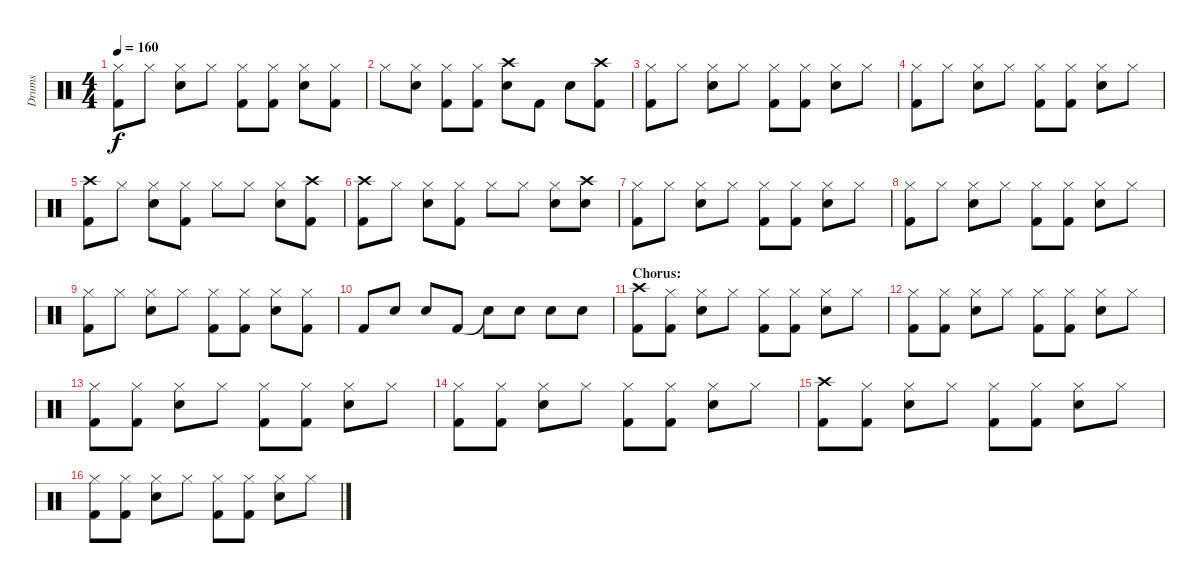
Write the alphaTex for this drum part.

\track ("Drums" "Drums") {instrument percussion}
\staff {score}
\articulation defaults
\ts (4 4)
\tempo 160
\clef neutral
\ks c
("Hi-Hat (closed)" "Kick (hit) 2").8{dy f} "Hi-Hat (closed)".8 ("Hi-Hat (closed)" "Electric Snare (hit)").8 "Hi-Hat (closed)".8 ("Hi-Hat (closed)" "Kick (hit) 2").8 ("Hi-Hat (closed)" "Kick (hit) 2").8 ("Hi-Hat (closed)" "Electric Snare (hit)").8 ("Hi-Hat (closed)" "Kick (hit) 2").8 |
"Hi-Hat (closed)".8 ("Hi-Hat (closed)" "Electric Snare (hit)").8 ("Hi-Hat (closed)" "Kick (hit) 2").8 ("Hi-Hat (closed)" "Kick (hit) 2").8 ("Crash high (hit)" "Electric Snare (hit)").8 "Kick (hit) 2".8 "Electric Snare (hit)".8 ("Crash high (hit)" "Kick (hit) 2").8 |
("Hi-Hat (closed)" "Kick (hit) 2").8 "Hi-Hat (closed)".8 ("Hi-Hat (closed)" "Electric Snare (hit)").8 "Hi-Hat (closed)".8 ("Hi-Hat (closed)" "Kick (hit) 2").8 ("Hi-Hat (closed)" "Kick (hit) 2").8 ("Hi-Hat (closed)" "Electric Snare (hit)").8 "Hi-Hat (closed)".8 |
("Hi-Hat (closed)" "Kick (hit) 2").8 "Hi-Hat (closed)".8 ("Hi-Hat (closed)" "Electric Snare (hit)").8 "Hi-Hat (closed)".8 ("Hi-Hat (closed)" "Kick (hit) 2").8 ("Hi-Hat (closed)" "Kick (hit) 2").8 ("Hi-Hat (closed)" "Electric Snare (hit)").8 "Hi-Hat (closed)".8 |
("Crash high (hit)" "Kick (hit) 2").8 "Hi-Hat (closed)".8 ("Hi-Hat (closed)" "Electric Snare (hit)").8 ("Hi-Hat (closed)" "Kick (hit) 2").8 "Hi-Hat (closed)".8 "Hi-Hat (closed)".8 ("Hi-Hat (closed)" "Electric Snare (hit)").8 ("Crash high (hit)" "Kick (hit) 2").8 |
("Crash high (hit)" "Kick (hit) 2").8 "Hi-Hat (closed)".8 ("Hi-Hat (closed)" "Electric Snare (hit)").8 ("Hi-Hat (closed)" "Kick (hit) 2").8 "Hi-Hat (closed)".8 "Hi-Hat (closed)".8 ("Hi-Hat (closed)" "Electric Snare (hit)").8 ("Crash high (hit)" "Electric Snare (hit)").8 |
("Hi-Hat (closed)" "Kick (hit) 2").8 "Hi-Hat (closed)".8 ("Hi-Hat (closed)" "Electric Snare (hit)").8 "Hi-Hat (closed)".8 ("Hi-Hat (closed)" "Kick (hit) 2").8 ("Hi-Hat (closed)" "Kick (hit) 2").8 ("Hi-Hat (closed)" "Electric Snare (hit)").8 "Hi-Hat (closed)".8 |
("Hi-Hat (closed)" "Kick (hit) 2").8 "Hi-Hat (closed)".8 ("Hi-Hat (closed)" "Electric Snare (hit)").8 "Hi-Hat (closed)".8 ("Hi-Hat (closed)" "Kick (hit) 2").8 ("Hi-Hat (closed)" "Kick (hit) 2").8 ("Hi-Hat (closed)" "Electric Snare (hit)").8 "Hi-Hat (closed)".8 |
("Hi-Hat (closed)" "Kick (hit) 2").8 "Hi-Hat (closed)".8 ("Hi-Hat (closed)" "Electric Snare (hit)").8 "Hi-Hat (closed)".8 ("Hi-Hat (closed)" "Kick (hit) 2").8 ("Hi-Hat (closed)" "Kick (hit) 2").8 ("Hi-Hat (closed)" "Electric Snare (hit)").8 ("Hi-Hat (closed)" "Kick (hit) 2").8 |
"Kick (hit) 2".8 "Electric Snare (hit)".8 "Electric Snare (hit)".8 "Kick (hit) 2".8 "Snare (hit)"{t}.8 "Electric Snare (hit)".8 "Electric Snare (hit)".8 "Electric Snare (hit)".8 |
\section ("" "Chorus:")
("Crash high (hit)" "Kick (hit) 2").8 ("Hi-Hat (closed)" "Kick (hit) 2").8 ("Hi-Hat (closed)" "Electric Snare (hit)").8 "Hi-Hat (closed)".8 ("Hi-Hat (closed)" "Kick (hit) 2").8 ("Hi-Hat (closed)" "Kick (hit) 2").8 ("Hi-Hat (closed)" "Electric Snare (hit)").8 "Hi-Hat (closed)".8 |
("Hi-Hat (closed)" "Kick (hit) 2").8 ("Hi-Hat (closed)" "Kick (hit) 2").8 ("Hi-Hat (closed)" "Electric Snare (hit)").8 "Hi-Hat (closed)".8 ("Hi-Hat (closed)" "Kick (hit) 2").8 ("Hi-Hat (closed)" "Kick (hit) 2").8 ("Hi-Hat (closed)" "Electric Snare (hit)").8 "Hi-Hat (closed)".8 |
("Hi-Hat (closed)" "Kick (hit) 2").8 ("Hi-Hat (closed)" "Kick (hit) 2").8 ("Hi-Hat (closed)" "Electric Snare (hit)").8 "Hi-Hat (closed)".8 ("Hi-Hat (closed)" "Kick (hit) 2").8 ("Hi-Hat (closed)" "Kick (hit) 2").8 ("Hi-Hat (closed)" "Electric Snare (hit)").8 "Hi-Hat (closed)".8 |
("Hi-Hat (closed)" "Kick (hit) 2").8 ("Hi-Hat (closed)" "Kick (hit) 2").8 ("Hi-Hat (closed)" "Electric Snare (hit)").8 "Hi-Hat (closed)".8 ("Hi-Hat (closed)" "Kick (hit) 2").8 ("Hi-Hat (closed)" "Kick (hit) 2").8 ("Hi-Hat (closed)" "Electric Snare (hit)").8 "Hi-Hat (closed)".8 |
("Crash high (hit)" "Kick (hit) 2").8 ("Hi-Hat (closed)" "Kick (hit) 2").8 ("Hi-Hat (closed)" "Electric Snare (hit)").8 "Hi-Hat (closed)".8 ("Hi-Hat (closed)" "Kick (hit) 2").8 ("Hi-Hat (closed)" "Kick (hit) 2").8 ("Hi-Hat (closed)" "Electric Snare (hit)").8 "Hi-Hat (closed)".8 |
("Hi-Hat (closed)" "Kick (hit) 2").8 ("Hi-Hat (closed)" "Kick (hit) 2").8 ("Hi-Hat (closed)" "Electric Snare (hit)").8 "Hi-Hat (closed)".8 ("Hi-Hat (closed)" "Kick (hit) 2").8 ("Hi-Hat (closed)" "Kick (hit) 2").8 ("Hi-Hat (closed)" "Electric Snare (hit)").8 "Hi-Hat (closed)".8
